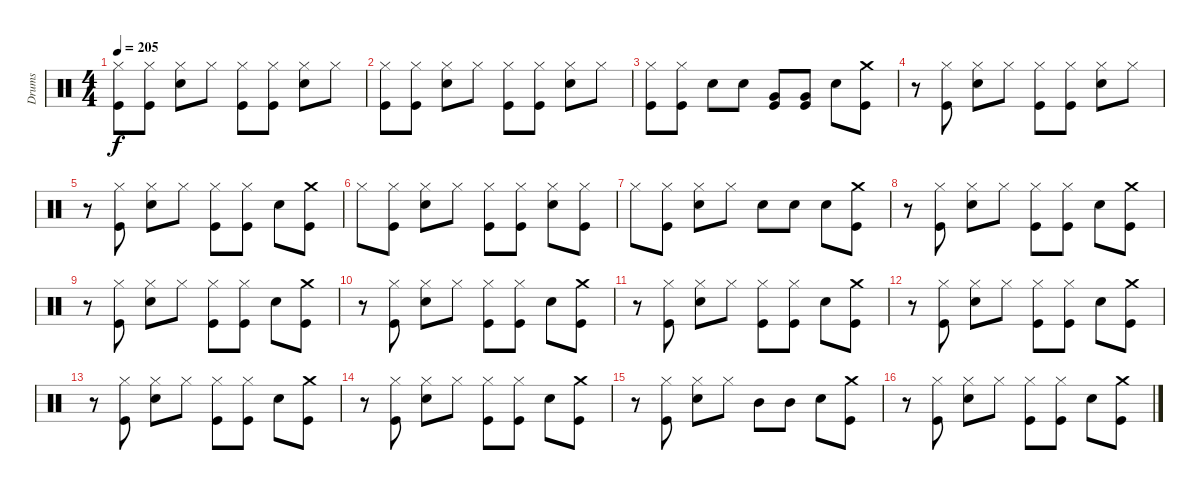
\track ("Drums" "Drums") {instrument percussion}
\staff {score}
\articulation defaults
\ts (4 4)
\tempo 205
\clef neutral
\ks c
("Hi-Hat (closed)" "Kick (hit)").8{dy f} ("Hi-Hat (closed)" "Kick (hit)").8 ("Hi-Hat (closed)" "Electric Snare (hit)").8 "Hi-Hat (closed)".8 ("Hi-Hat (closed)" "Kick (hit)").8 ("Hi-Hat (closed)" "Kick (hit)").8 ("Hi-Hat (closed)" "Electric Snare (hit)").8 "Hi-Hat (closed)".8 |
("Hi-Hat (closed)" "Kick (hit)").8 ("Hi-Hat (closed)" "Kick (hit)").8 ("Hi-Hat (closed)" "Electric Snare (hit)").8 "Hi-Hat (closed)".8 ("Hi-Hat (closed)" "Kick (hit)").8 ("Hi-Hat (closed)" "Kick (hit)").8 ("Hi-Hat (closed)" "Electric Snare (hit)").8 "Hi-Hat (closed)".8 |
("Hi-Hat (closed)" "Kick (hit)").8 ("Hi-Hat (closed)" "Kick (hit)").8 "Electric Snare (hit)".8 "Electric Snare (hit)".8 ("Very Low Tom (hit)" "Kick (hit)").8 ("Very Low Tom (hit)" "Kick (hit)").8 "Electric Snare (hit)".8 ("Crash medium (hit)" "Kick (hit)").8 |
r.8 ("Hi-Hat (closed)" "Kick (hit)").8 ("Hi-Hat (closed)" "Electric Snare (hit)").8 "Hi-Hat (closed)".8 ("Hi-Hat (closed)" "Kick (hit)").8 ("Hi-Hat (closed)" "Kick (hit)").8 ("Hi-Hat (closed)" "Electric Snare (hit)").8 "Hi-Hat (closed)".8 |
r.8 ("Hi-Hat (closed)" "Kick (hit)").8 ("Hi-Hat (closed)" "Electric Snare (hit)").8 "Hi-Hat (closed)".8 ("Hi-Hat (closed)" "Kick (hit)").8 ("Hi-Hat (closed)" "Kick (hit)").8 "Electric Snare (hit)".8 ("Crash medium (hit)" "Kick (hit)").8 |
"Hi-Hat (closed)".8 ("Hi-Hat (closed)" "Kick (hit)").8 ("Hi-Hat (closed)" "Electric Snare (hit)").8 "Hi-Hat (closed)".8 ("Hi-Hat (closed)" "Kick (hit)").8 ("Hi-Hat (closed)" "Kick (hit)").8 ("Hi-Hat (closed)" "Electric Snare (hit)").8 ("Hi-Hat (closed)" "Kick (hit)").8 |
"Hi-Hat (closed)".8 ("Hi-Hat (closed)" "Kick (hit)").8 ("Hi-Hat (closed)" "Electric Snare (hit)").8 "Hi-Hat (closed)".8 "Electric Snare (hit)".8 "Electric Snare (hit)".8 "Electric Snare (hit)".8 ("Crash medium (hit)" "Kick (hit)").8 |
r.8 ("Hi-Hat (closed)" "Kick (hit)").8 ("Hi-Hat (closed)" "Electric Snare (hit)").8 "Hi-Hat (closed)".8 ("Hi-Hat (closed)" "Kick (hit)").8 ("Hi-Hat (closed)" "Kick (hit)").8 "Electric Snare (hit)".8 ("Crash medium (hit)" "Kick (hit)").8 |
r.8 ("Hi-Hat (closed)" "Kick (hit)").8 ("Hi-Hat (closed)" "Electric Snare (hit)").8 "Hi-Hat (closed)".8 ("Hi-Hat (closed)" "Kick (hit)").8 ("Hi-Hat (closed)" "Kick (hit)").8 "Electric Snare (hit)".8 ("Crash medium (hit)" "Kick (hit)").8 |
r.8 ("Hi-Hat (closed)" "Kick (hit)").8 ("Hi-Hat (closed)" "Electric Snare (hit)").8 "Hi-Hat (closed)".8 ("Hi-Hat (closed)" "Kick (hit)").8 ("Hi-Hat (closed)" "Kick (hit)").8 "Electric Snare (hit)".8 ("Crash medium (hit)" "Kick (hit)").8 |
r.8 ("Hi-Hat (closed)" "Kick (hit)").8 ("Hi-Hat (closed)" "Electric Snare (hit)").8 "Hi-Hat (closed)".8 ("Hi-Hat (closed)" "Kick (hit)").8 ("Hi-Hat (closed)" "Kick (hit)").8 "Electric Snare (hit)".8 ("Crash medium (hit)" "Kick (hit)").8 |
r.8 ("Hi-Hat (closed)" "Kick (hit)").8 ("Hi-Hat (closed)" "Electric Snare (hit)").8 "Hi-Hat (closed)".8 ("Hi-Hat (closed)" "Kick (hit)").8 ("Hi-Hat (closed)" "Kick (hit)").8 "Electric Snare (hit)".8 ("Crash medium (hit)" "Kick (hit)").8 |
r.8 ("Hi-Hat (closed)" "Kick (hit)").8 ("Hi-Hat (closed)" "Electric Snare (hit)").8 "Hi-Hat (closed)".8 ("Hi-Hat (closed)" "Kick (hit)").8 ("Hi-Hat (closed)" "Kick (hit)").8 "Electric Snare (hit)".8 ("Crash medium (hit)" "Kick (hit)").8 |
r.8 ("Hi-Hat (closed)" "Kick (hit)").8 ("Hi-Hat (closed)" "Electric Snare (hit)").8 "Hi-Hat (closed)".8 ("Hi-Hat (closed)" "Kick (hit)").8 ("Hi-Hat (closed)" "Kick (hit)").8 "Electric Snare (hit)".8 ("Crash medium (hit)" "Kick (hit)").8 |
r.8 ("Hi-Hat (closed)" "Kick (hit)").8 ("Hi-Hat (closed)" "Electric Snare (hit)").8 "Hi-Hat (closed)".8 "Mid Tom (hit)".8 "Mid Tom (hit)".8 "Electric Snare (hit)".8 ("Crash medium (hit)" "Kick (hit)").8 |
r.8 ("Hi-Hat (closed)" "Kick (hit)").8 ("Hi-Hat (closed)" "Electric Snare (hit)").8 "Hi-Hat (closed)".8 ("Hi-Hat (closed)" "Kick (hit)").8 ("Hi-Hat (closed)" "Kick (hit)").8 "Electric Snare (hit)".8 ("Crash medium (hit)" "Kick (hit)").8
